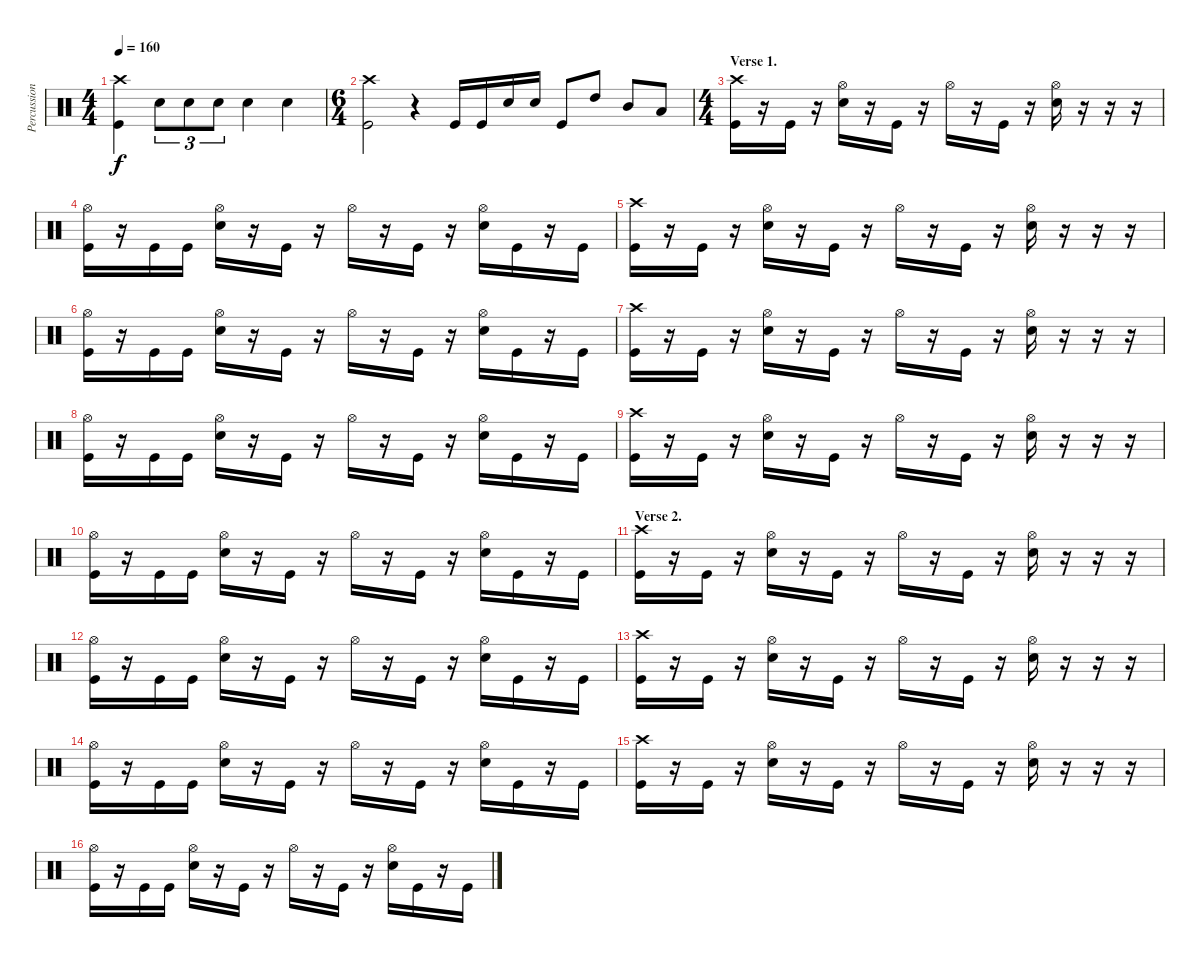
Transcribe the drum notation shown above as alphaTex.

\track ("Percussion" "Percussion") {instrument percussion}
\staff {score}
\articulation defaults
\ts (4 4)
\tempo 160
\clef neutral
\ks c
("Crash high (hit)" "Kick (hit)").4{dy f} "Electric Snare (hit)".8{tu (3 2)} "Electric Snare (hit)".8{tu (3 2)} "Electric Snare (hit)".8{tu (3 2)} "Electric Snare (hit)".4 "Electric Snare (hit)".4 |
\ts (6 4)
("Crash high (hit)" "Kick (hit)").2 r.4 "Kick (hit)".16 "Kick (hit)".16 "Electric Snare (hit)".16 "Electric Snare (hit)".16 "Kick (hit)".8 "High Tom (hit)".8 "Mid Tom (hit)".8 "Low Tom (hit)".8 |
\ts (4 4)
\section ("" "Verse 1.")
("Crash high (hit)" "Kick (hit)").16 r.16 "Kick (hit)".16 r.16 ("Hi-Hat (open)" "Electric Snare (hit)").16 r.16 "Kick (hit)".16 r.16 "Hi-Hat (open)".16 r.16 "Kick (hit)".16 r.16 ("Hi-Hat (open)" "Electric Snare (hit)").16 r.16 r.16 r.16 |
("Hi-Hat (open)" "Kick (hit)").16 r.16 "Kick (hit)".16 "Kick (hit)".16 ("Hi-Hat (open)" "Electric Snare (hit)").16 r.16 "Kick (hit)".16 r.16 "Hi-Hat (open)".16 r.16 "Kick (hit)".16 r.16 ("Hi-Hat (open)" "Electric Snare (hit)").16 "Kick (hit)".16 r.16 "Kick (hit)".16 |
("Crash high (hit)" "Kick (hit)").16 r.16 "Kick (hit)".16 r.16 ("Hi-Hat (open)" "Electric Snare (hit)").16 r.16 "Kick (hit)".16 r.16 "Hi-Hat (open)".16 r.16 "Kick (hit)".16 r.16 ("Hi-Hat (open)" "Electric Snare (hit)").16 r.16 r.16 r.16 |
("Hi-Hat (open)" "Kick (hit)").16 r.16 "Kick (hit)".16 "Kick (hit)".16 ("Hi-Hat (open)" "Electric Snare (hit)").16 r.16 "Kick (hit)".16 r.16 "Hi-Hat (open)".16 r.16 "Kick (hit)".16 r.16 ("Hi-Hat (open)" "Electric Snare (hit)").16 "Kick (hit)".16 r.16 "Kick (hit)".16 |
("Crash high (hit)" "Kick (hit)").16 r.16 "Kick (hit)".16 r.16 ("Hi-Hat (open)" "Electric Snare (hit)").16 r.16 "Kick (hit)".16 r.16 "Hi-Hat (open)".16 r.16 "Kick (hit)".16 r.16 ("Hi-Hat (open)" "Electric Snare (hit)").16 r.16 r.16 r.16 |
("Hi-Hat (open)" "Kick (hit)").16 r.16 "Kick (hit)".16 "Kick (hit)".16 ("Hi-Hat (open)" "Electric Snare (hit)").16 r.16 "Kick (hit)".16 r.16 "Hi-Hat (open)".16 r.16 "Kick (hit)".16 r.16 ("Hi-Hat (open)" "Electric Snare (hit)").16 "Kick (hit)".16 r.16 "Kick (hit)".16 |
("Crash high (hit)" "Kick (hit)").16 r.16 "Kick (hit)".16 r.16 ("Hi-Hat (open)" "Electric Snare (hit)").16 r.16 "Kick (hit)".16 r.16 "Hi-Hat (open)".16 r.16 "Kick (hit)".16 r.16 ("Hi-Hat (open)" "Electric Snare (hit)").16 r.16 r.16 r.16 |
("Hi-Hat (open)" "Kick (hit)").16 r.16 "Kick (hit)".16 "Kick (hit)".16 ("Hi-Hat (open)" "Electric Snare (hit)").16 r.16 "Kick (hit)".16 r.16 "Hi-Hat (open)".16 r.16 "Kick (hit)".16 r.16 ("Hi-Hat (open)" "Electric Snare (hit)").16 "Kick (hit)".16 r.16 "Kick (hit)".16 |
\section ("" "Verse 2.")
("Crash high (hit)" "Kick (hit)").16 r.16 "Kick (hit)".16 r.16 ("Hi-Hat (open)" "Electric Snare (hit)").16 r.16 "Kick (hit)".16 r.16 "Hi-Hat (open)".16 r.16 "Kick (hit)".16 r.16 ("Hi-Hat (open)" "Electric Snare (hit)").16 r.16 r.16 r.16 |
("Hi-Hat (open)" "Kick (hit)").16 r.16 "Kick (hit)".16 "Kick (hit)".16 ("Hi-Hat (open)" "Electric Snare (hit)").16 r.16 "Kick (hit)".16 r.16 "Hi-Hat (open)".16 r.16 "Kick (hit)".16 r.16 ("Hi-Hat (open)" "Electric Snare (hit)").16 "Kick (hit)".16 r.16 "Kick (hit)".16 |
("Crash high (hit)" "Kick (hit)").16 r.16 "Kick (hit)".16 r.16 ("Hi-Hat (open)" "Electric Snare (hit)").16 r.16 "Kick (hit)".16 r.16 "Hi-Hat (open)".16 r.16 "Kick (hit)".16 r.16 ("Hi-Hat (open)" "Electric Snare (hit)").16 r.16 r.16 r.16 |
("Hi-Hat (open)" "Kick (hit)").16 r.16 "Kick (hit)".16 "Kick (hit)".16 ("Hi-Hat (open)" "Electric Snare (hit)").16 r.16 "Kick (hit)".16 r.16 "Hi-Hat (open)".16 r.16 "Kick (hit)".16 r.16 ("Hi-Hat (open)" "Electric Snare (hit)").16 "Kick (hit)".16 r.16 "Kick (hit)".16 |
("Crash high (hit)" "Kick (hit)").16 r.16 "Kick (hit)".16 r.16 ("Hi-Hat (open)" "Electric Snare (hit)").16 r.16 "Kick (hit)".16 r.16 "Hi-Hat (open)".16 r.16 "Kick (hit)".16 r.16 ("Hi-Hat (open)" "Electric Snare (hit)").16 r.16 r.16 r.16 |
("Hi-Hat (open)" "Kick (hit)").16 r.16 "Kick (hit)".16 "Kick (hit)".16 ("Hi-Hat (open)" "Electric Snare (hit)").16 r.16 "Kick (hit)".16 r.16 "Hi-Hat (open)".16 r.16 "Kick (hit)".16 r.16 ("Hi-Hat (open)" "Electric Snare (hit)").16 "Kick (hit)".16 r.16 "Kick (hit)".16
